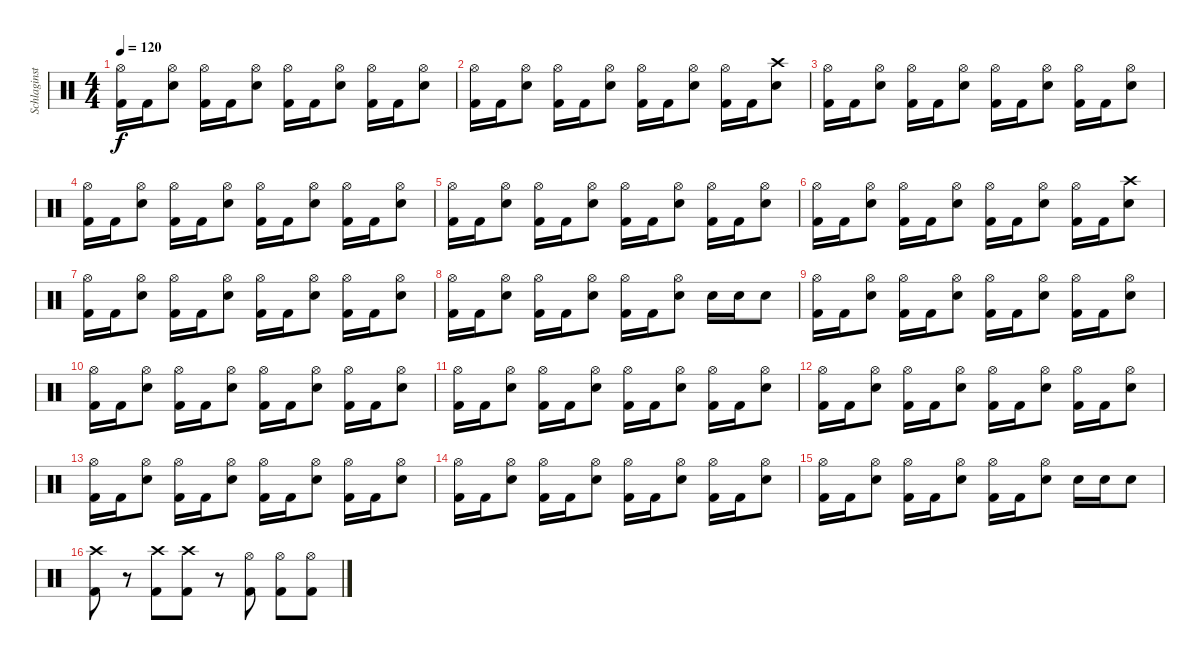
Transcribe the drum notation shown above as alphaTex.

\track ("Schlaginstrumente - Auswahl" "Schlaginst") {instrument percussion}
\staff {score}
\articulation defaults
\ts (4 4)
\tempo 120
\clef neutral
\ks c
("Hi-Hat (open)" "Kick (hit) 2").16{dy f} "Kick (hit) 2".16 ("Hi-Hat (open)" "Electric Snare (hit)").8 ("Hi-Hat (open)" "Kick (hit) 2").16 "Kick (hit) 2".16 ("Hi-Hat (open)" "Electric Snare (hit)").8 ("Hi-Hat (open)" "Kick (hit) 2").16 "Kick (hit) 2".16 ("Hi-Hat (open)" "Electric Snare (hit)").8 ("Hi-Hat (open)" "Kick (hit) 2").16 "Kick (hit) 2".16 ("Hi-Hat (open)" "Electric Snare (hit)").8 |
("Hi-Hat (open)" "Kick (hit) 2").16 "Kick (hit) 2".16 ("Hi-Hat (open)" "Electric Snare (hit)").8 ("Hi-Hat (open)" "Kick (hit) 2").16 "Kick (hit) 2".16 ("Hi-Hat (open)" "Electric Snare (hit)").8 ("Hi-Hat (open)" "Kick (hit) 2").16 "Kick (hit) 2".16 ("Hi-Hat (open)" "Electric Snare (hit)").8 ("Hi-Hat (open)" "Kick (hit) 2").16 "Kick (hit) 2".16 ("Crash high (hit)" "Electric Snare (hit)").8 |
("Hi-Hat (open)" "Kick (hit) 2").16 "Kick (hit) 2".16 ("Hi-Hat (open)" "Electric Snare (hit)").8 ("Hi-Hat (open)" "Kick (hit) 2").16 "Kick (hit) 2".16 ("Hi-Hat (open)" "Electric Snare (hit)").8 ("Hi-Hat (open)" "Kick (hit) 2").16 "Kick (hit) 2".16 ("Hi-Hat (open)" "Electric Snare (hit)").8 ("Hi-Hat (open)" "Kick (hit) 2").16 "Kick (hit) 2".16 ("Hi-Hat (open)" "Electric Snare (hit)").8 |
("Hi-Hat (open)" "Kick (hit) 2").16 "Kick (hit) 2".16 ("Hi-Hat (open)" "Electric Snare (hit)").8 ("Hi-Hat (open)" "Kick (hit) 2").16 "Kick (hit) 2".16 ("Hi-Hat (open)" "Electric Snare (hit)").8 ("Hi-Hat (open)" "Kick (hit) 2").16 "Kick (hit) 2".16 ("Hi-Hat (open)" "Electric Snare (hit)").8 ("Hi-Hat (open)" "Kick (hit) 2").16 "Kick (hit) 2".16 ("Hi-Hat (open)" "Electric Snare (hit)").8 |
("Hi-Hat (open)" "Kick (hit) 2").16 "Kick (hit) 2".16 ("Hi-Hat (open)" "Electric Snare (hit)").8 ("Hi-Hat (open)" "Kick (hit) 2").16 "Kick (hit) 2".16 ("Hi-Hat (open)" "Electric Snare (hit)").8 ("Hi-Hat (open)" "Kick (hit) 2").16 "Kick (hit) 2".16 ("Hi-Hat (open)" "Electric Snare (hit)").8 ("Hi-Hat (open)" "Kick (hit) 2").16 "Kick (hit) 2".16 ("Hi-Hat (open)" "Electric Snare (hit)").8 |
("Hi-Hat (open)" "Kick (hit) 2").16 "Kick (hit) 2".16 ("Hi-Hat (open)" "Electric Snare (hit)").8 ("Hi-Hat (open)" "Kick (hit) 2").16 "Kick (hit) 2".16 ("Hi-Hat (open)" "Electric Snare (hit)").8 ("Hi-Hat (open)" "Kick (hit) 2").16 "Kick (hit) 2".16 ("Hi-Hat (open)" "Electric Snare (hit)").8 ("Hi-Hat (open)" "Kick (hit) 2").16 "Kick (hit) 2".16 ("Crash high (hit)" "Electric Snare (hit)").8 |
("Hi-Hat (open)" "Kick (hit) 2").16 "Kick (hit) 2".16 ("Hi-Hat (open)" "Electric Snare (hit)").8 ("Hi-Hat (open)" "Kick (hit) 2").16 "Kick (hit) 2".16 ("Hi-Hat (open)" "Electric Snare (hit)").8 ("Hi-Hat (open)" "Kick (hit) 2").16 "Kick (hit) 2".16 ("Hi-Hat (open)" "Electric Snare (hit)").8 ("Hi-Hat (open)" "Kick (hit) 2").16 "Kick (hit) 2".16 ("Hi-Hat (open)" "Electric Snare (hit)").8 |
("Hi-Hat (open)" "Kick (hit) 2").16 "Kick (hit) 2".16 ("Hi-Hat (open)" "Electric Snare (hit)").8 ("Hi-Hat (open)" "Kick (hit) 2").16 "Kick (hit) 2".16 ("Hi-Hat (open)" "Electric Snare (hit)").8 ("Hi-Hat (open)" "Kick (hit) 2").16 "Kick (hit) 2".16 ("Hi-Hat (open)" "Electric Snare (hit)").8 "Electric Snare (hit)".16 "Electric Snare (hit)".16 "Electric Snare (hit)".8 |
("Hi-Hat (open)" "Kick (hit) 2").16 "Kick (hit) 2".16 ("Hi-Hat (open)" "Electric Snare (hit)").8 ("Hi-Hat (open)" "Kick (hit) 2").16 "Kick (hit) 2".16 ("Hi-Hat (open)" "Electric Snare (hit)").8 ("Hi-Hat (open)" "Kick (hit) 2").16 "Kick (hit) 2".16 ("Hi-Hat (open)" "Electric Snare (hit)").8 ("Hi-Hat (open)" "Kick (hit) 2").16 "Kick (hit) 2".16 ("Hi-Hat (open)" "Electric Snare (hit)").8 |
("Hi-Hat (open)" "Kick (hit) 2").16 "Kick (hit) 2".16 ("Hi-Hat (open)" "Electric Snare (hit)").8 ("Hi-Hat (open)" "Kick (hit) 2").16 "Kick (hit) 2".16 ("Hi-Hat (open)" "Electric Snare (hit)").8 ("Hi-Hat (open)" "Kick (hit) 2").16 "Kick (hit) 2".16 ("Hi-Hat (open)" "Electric Snare (hit)").8 ("Hi-Hat (open)" "Kick (hit) 2").16 "Kick (hit) 2".16 ("Hi-Hat (open)" "Electric Snare (hit)").8 |
("Hi-Hat (open)" "Kick (hit) 2").16 "Kick (hit) 2".16 ("Hi-Hat (open)" "Electric Snare (hit)").8 ("Hi-Hat (open)" "Kick (hit) 2").16 "Kick (hit) 2".16 ("Hi-Hat (open)" "Electric Snare (hit)").8 ("Hi-Hat (open)" "Kick (hit) 2").16 "Kick (hit) 2".16 ("Hi-Hat (open)" "Electric Snare (hit)").8 ("Hi-Hat (open)" "Kick (hit) 2").16 "Kick (hit) 2".16 ("Hi-Hat (open)" "Electric Snare (hit)").8 |
("Hi-Hat (open)" "Kick (hit) 2").16 "Kick (hit) 2".16 ("Hi-Hat (open)" "Electric Snare (hit)").8 ("Hi-Hat (open)" "Kick (hit) 2").16 "Kick (hit) 2".16 ("Hi-Hat (open)" "Electric Snare (hit)").8 ("Hi-Hat (open)" "Kick (hit) 2").16 "Kick (hit) 2".16 ("Hi-Hat (open)" "Electric Snare (hit)").8 ("Hi-Hat (open)" "Kick (hit) 2").16 "Kick (hit) 2".16 ("Hi-Hat (open)" "Electric Snare (hit)").8 |
("Hi-Hat (open)" "Kick (hit) 2").16 "Kick (hit) 2".16 ("Hi-Hat (open)" "Electric Snare (hit)").8 ("Hi-Hat (open)" "Kick (hit) 2").16 "Kick (hit) 2".16 ("Hi-Hat (open)" "Electric Snare (hit)").8 ("Hi-Hat (open)" "Kick (hit) 2").16 "Kick (hit) 2".16 ("Hi-Hat (open)" "Electric Snare (hit)").8 ("Hi-Hat (open)" "Kick (hit) 2").16 "Kick (hit) 2".16 ("Hi-Hat (open)" "Electric Snare (hit)").8 |
("Hi-Hat (open)" "Kick (hit) 2").16 "Kick (hit) 2".16 ("Hi-Hat (open)" "Electric Snare (hit)").8 ("Hi-Hat (open)" "Kick (hit) 2").16 "Kick (hit) 2".16 ("Hi-Hat (open)" "Electric Snare (hit)").8 ("Hi-Hat (open)" "Kick (hit) 2").16 "Kick (hit) 2".16 ("Hi-Hat (open)" "Electric Snare (hit)").8 ("Hi-Hat (open)" "Kick (hit) 2").16 "Kick (hit) 2".16 ("Hi-Hat (open)" "Electric Snare (hit)").8 |
("Hi-Hat (open)" "Kick (hit) 2").16 "Kick (hit) 2".16 ("Hi-Hat (open)" "Electric Snare (hit)").8 ("Hi-Hat (open)" "Kick (hit) 2").16 "Kick (hit) 2".16 ("Hi-Hat (open)" "Electric Snare (hit)").8 ("Hi-Hat (open)" "Kick (hit) 2").16 "Kick (hit) 2".16 ("Hi-Hat (open)" "Electric Snare (hit)").8 "Electric Snare (hit)".16 "Electric Snare (hit)".16 "Electric Snare (hit)".8 |
("Crash high (hit)" "Kick (hit) 2").8 r.8 ("Crash high (hit)" "Kick (hit) 2").8 ("Crash high (hit)" "Kick (hit) 2").8 r.8 ("Hi-Hat (open)" "Kick (hit) 2").8 ("Hi-Hat (open)" "Kick (hit) 2").8 ("Hi-Hat (open)" "Kick (hit) 2").8
